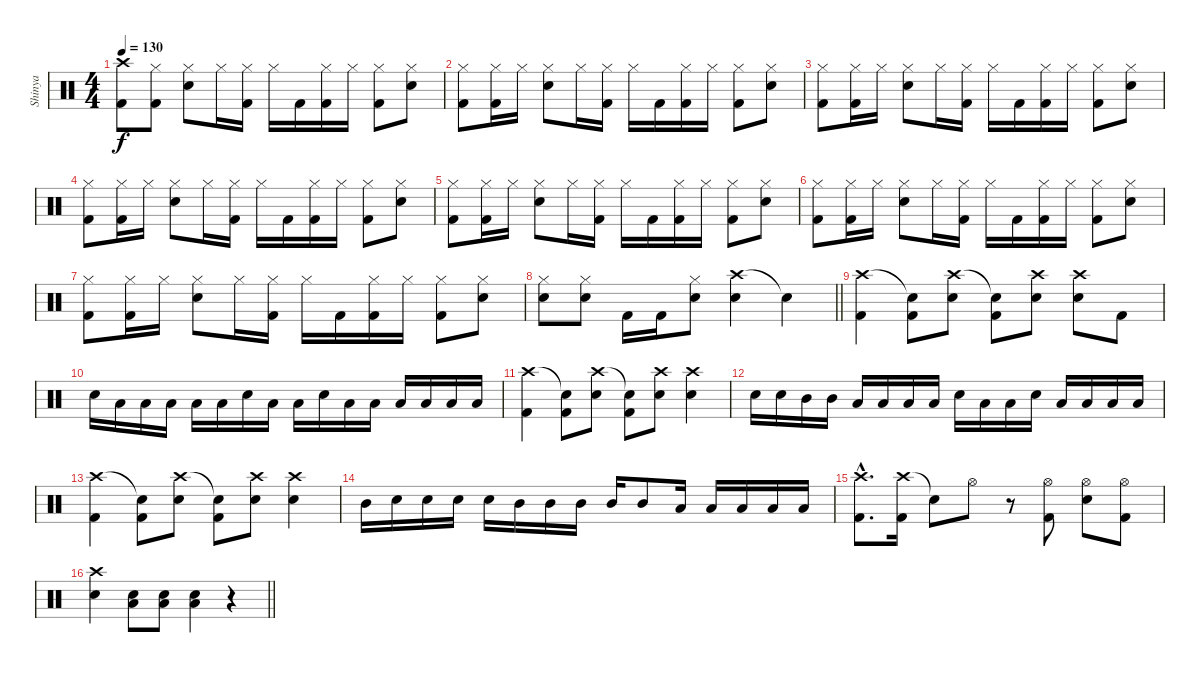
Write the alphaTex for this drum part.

\track ("Shinya" "Shinya") {instrument percussion}
\staff {score}
\articulation defaults
\ts (4 4)
\tempo 130
\clef neutral
\ks c
("Crash high (hit)" "Kick (hit) 2").8{dy f} ("Hi-Hat (closed)" "Kick (hit) 2").8 ("Hi-Hat (closed)" "Electric Snare (hit)").8 "Hi-Hat (closed)".16 ("Hi-Hat (closed)" "Kick (hit) 2").16 "Hi-Hat (closed)".16 "Kick (hit) 2".16 ("Hi-Hat (closed)" "Kick (hit) 2").16 "Hi-Hat (closed)".16 ("Hi-Hat (closed)" "Kick (hit) 2").8 ("Hi-Hat (closed)" "Electric Snare (hit)").8 |
("Hi-Hat (closed)" "Kick (hit) 2").8 ("Hi-Hat (closed)" "Kick (hit) 2").16 "Hi-Hat (closed)".16 ("Hi-Hat (closed)" "Electric Snare (hit)").8 "Hi-Hat (closed)".16 ("Hi-Hat (closed)" "Kick (hit) 2").16 "Hi-Hat (closed)".16 "Kick (hit) 2".16 ("Hi-Hat (closed)" "Kick (hit) 2").16 "Hi-Hat (closed)".16 ("Hi-Hat (closed)" "Kick (hit) 2").8 ("Hi-Hat (closed)" "Electric Snare (hit)").8 |
("Hi-Hat (closed)" "Kick (hit) 2").8 ("Hi-Hat (closed)" "Kick (hit) 2").16 "Hi-Hat (closed)".16 ("Hi-Hat (closed)" "Electric Snare (hit)").8 "Hi-Hat (closed)".16 ("Hi-Hat (closed)" "Kick (hit) 2").16 "Hi-Hat (closed)".16 "Kick (hit) 2".16 ("Hi-Hat (closed)" "Kick (hit) 2").16 "Hi-Hat (closed)".16 ("Hi-Hat (closed)" "Kick (hit) 2").8 ("Hi-Hat (closed)" "Electric Snare (hit)").8 |
("Hi-Hat (closed)" "Kick (hit) 2").8 ("Hi-Hat (closed)" "Kick (hit) 2").16 "Hi-Hat (closed)".16 ("Hi-Hat (closed)" "Electric Snare (hit)").8 "Hi-Hat (closed)".16 ("Hi-Hat (closed)" "Kick (hit) 2").16 "Hi-Hat (closed)".16 "Kick (hit) 2".16 ("Hi-Hat (closed)" "Kick (hit) 2").16 "Hi-Hat (closed)".16 ("Hi-Hat (closed)" "Kick (hit) 2").8 ("Hi-Hat (closed)" "Electric Snare (hit)").8 |
("Hi-Hat (closed)" "Kick (hit) 2").8 ("Hi-Hat (closed)" "Kick (hit) 2").16 "Hi-Hat (closed)".16 ("Hi-Hat (closed)" "Electric Snare (hit)").8 "Hi-Hat (closed)".16 ("Hi-Hat (closed)" "Kick (hit) 2").16 "Hi-Hat (closed)".16 "Kick (hit) 2".16 ("Hi-Hat (closed)" "Kick (hit) 2").16 "Hi-Hat (closed)".16 ("Hi-Hat (closed)" "Kick (hit) 2").8 ("Hi-Hat (closed)" "Electric Snare (hit)").8 |
("Hi-Hat (closed)" "Kick (hit) 2").8 ("Hi-Hat (closed)" "Kick (hit) 2").16 "Hi-Hat (closed)".16 ("Hi-Hat (closed)" "Electric Snare (hit)").8 "Hi-Hat (closed)".16 ("Hi-Hat (closed)" "Kick (hit) 2").16 "Hi-Hat (closed)".16 "Kick (hit) 2".16 ("Hi-Hat (closed)" "Kick (hit) 2").16 "Hi-Hat (closed)".16 ("Hi-Hat (closed)" "Kick (hit) 2").8 ("Hi-Hat (closed)" "Electric Snare (hit)").8 |
("Hi-Hat (closed)" "Kick (hit) 2").8 ("Hi-Hat (closed)" "Kick (hit) 2").16 "Hi-Hat (closed)".16 ("Hi-Hat (closed)" "Electric Snare (hit)").8 "Hi-Hat (closed)".16 ("Hi-Hat (closed)" "Kick (hit) 2").16 "Hi-Hat (closed)".16 "Kick (hit) 2".16 ("Hi-Hat (closed)" "Kick (hit) 2").16 "Hi-Hat (closed)".16 ("Hi-Hat (closed)" "Kick (hit) 2").8 ("Hi-Hat (closed)" "Electric Snare (hit)").8 |
\barLineRight lightlight
("Hi-Hat (closed)" "Electric Snare (hit)").8 ("Hi-Hat (closed)" "Electric Snare (hit)").8 "Kick (hit) 2".16 "Kick (hit) 2".16 ("Hi-Hat (closed)" "Electric Snare (hit)").8 ("Crash high (hit)" "Electric Snare (hit)").4 "Snare (hit)"{t}.4 |
("Crash high (hit)" "Kick (hit) 2").4 ("Snare (hit)"{t} "Kick (hit) 2").8 ("Crash high (hit)" "Electric Snare (hit)").8 ("Snare (hit)"{t} "Kick (hit) 2").8 ("Crash high (hit)" "Electric Snare (hit)").8 ("Crash high (hit)" "Electric Snare (hit)").8 "Kick (hit) 2".8 |
"Electric Snare (hit)".16 "Low Floor Tom (hit)".16 "Low Floor Tom (hit)".16 "Low Floor Tom (hit)".16 "Low Floor Tom (hit)".16 "Low Floor Tom (hit)".16 "Electric Snare (hit)".16 "Low Floor Tom (hit)".16 "Low Floor Tom (hit)".16 "Electric Snare (hit)".16 "Low Floor Tom (hit)".16 "Low Floor Tom (hit)".16 "Low Floor Tom (hit)".16 "Low Floor Tom (hit)".16 "Low Floor Tom (hit)".16 "Low Floor Tom (hit)".16 |
("Crash high (hit)" "Kick (hit) 2").4 ("Snare (hit)"{t} "Kick (hit) 2").8 ("Crash high (hit)" "Electric Snare (hit)").8 ("Snare (hit)"{t} "Kick (hit) 2").8 ("Crash high (hit)" "Electric Snare (hit)").8 ("Crash high (hit)" "Electric Snare (hit)").4 |
"Electric Snare (hit)".16 "Electric Snare (hit)".16 "Mid Tom (hit)".16 "Mid Tom (hit)".16 "Low Tom (hit)".16 "Low Tom (hit)".16 "Low Tom (hit)".16 "Low Tom (hit)".16 "Electric Snare (hit)".16 "Low Tom (hit)".16 "Low Tom (hit)".16 "Electric Snare (hit)".16 "Low Tom (hit)".16 "Low Tom (hit)".16 "Low Tom (hit)".16 "Low Tom (hit)".16 |
("Crash high (hit)" "Kick (hit) 2").4 ("Snare (hit)"{t} "Kick (hit) 2").8 ("Crash high (hit)" "Electric Snare (hit)").8 ("Snare (hit)"{t} "Kick (hit) 2").8 ("Crash high (hit)" "Electric Snare (hit)").8 ("Crash high (hit)" "Electric Snare (hit)").4 |
"Mid Tom (hit)".16 "Electric Snare (hit)".16 "Electric Snare (hit)".16 "Electric Snare (hit)".16 "Electric Snare (hit)".16 "Mid Tom (hit)".16 "Mid Tom (hit)".16 "Mid Tom (hit)".16 "Mid Tom (hit)".16 "Mid Tom (hit)".8 "Low Tom (hit)".16 "Low Tom (hit)".16 "Low Tom (hit)".16 "Low Tom (hit)".16 "Low Tom (hit)".16 |
("Crash high (hit)"{hac} "Kick (hit) 2"{hac}).8{d} ("Crash high (hit)" "Kick (hit) 2").16 "Snare (hit)"{t}.8 "Hi-Hat (open)".8 r.8 ("Hi-Hat (open)" "Kick (hit) 2").8 ("Hi-Hat (open)" "Electric Snare (hit)").8 ("Hi-Hat (open)" "Kick (hit) 2").8 |
\barLineRight lightlight
("Crash high (hit)" "Electric Snare (hit)").4 ("Low Floor Tom (hit)" "Electric Snare (hit)").8 ("Low Floor Tom (hit)" "Electric Snare (hit)").8 ("Low Floor Tom (hit)" "Electric Snare (hit)").4 r.4
